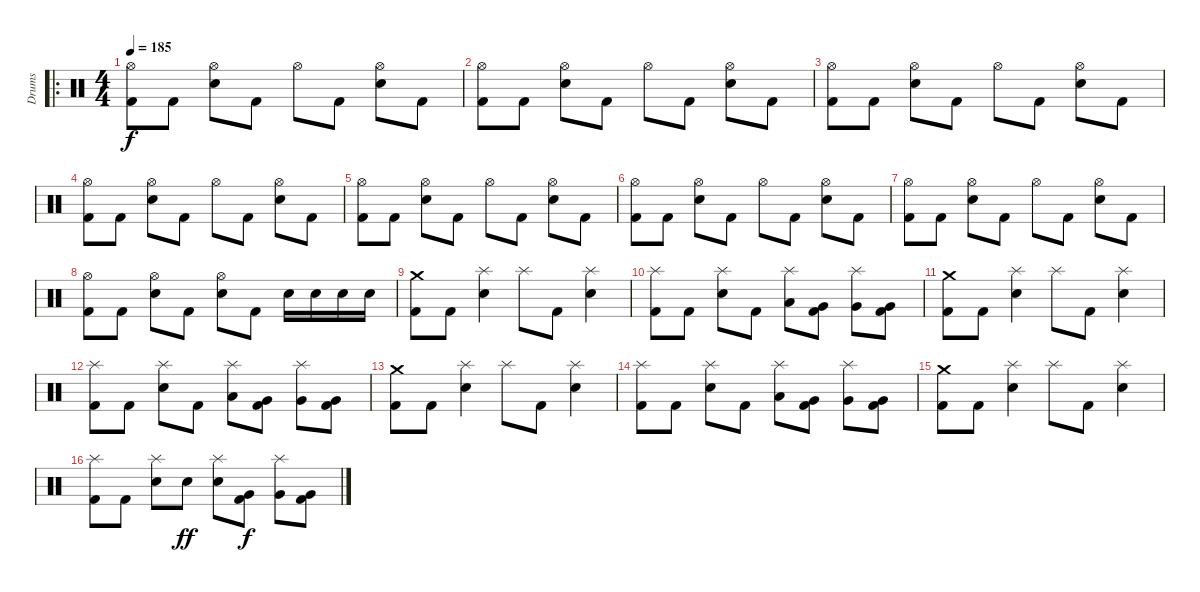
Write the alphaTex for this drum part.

\track ("Drums" "Drums") {instrument percussion}
\staff {score}
\articulation defaults
\ro
\ts (4 4)
\tempo 185
\clef neutral
\ks c
("Hi-Hat (open)" "Kick (hit) 2").8{dy f} "Kick (hit) 2".8 ("Hi-Hat (open)" "Snare (hit) 2").8 "Kick (hit) 2".8 "Hi-Hat (open)".8 "Kick (hit) 2".8 ("Hi-Hat (open)" "Snare (hit) 2").8 "Kick (hit) 2".8 |
("Hi-Hat (open)" "Kick (hit) 2").8 "Kick (hit) 2".8 ("Hi-Hat (open)" "Snare (hit) 2").8 "Kick (hit) 2".8 "Hi-Hat (open)".8 "Kick (hit) 2".8 ("Hi-Hat (open)" "Snare (hit) 2").8 "Kick (hit) 2".8 |
("Hi-Hat (open)" "Kick (hit) 2").8 "Kick (hit) 2".8 ("Hi-Hat (open)" "Snare (hit) 2").8 "Kick (hit) 2".8 "Hi-Hat (open)".8 "Kick (hit) 2".8 ("Hi-Hat (open)" "Snare (hit) 2").8 "Kick (hit) 2".8 |
("Hi-Hat (open)" "Kick (hit) 2").8 "Kick (hit) 2".8 ("Hi-Hat (open)" "Snare (hit) 2").8 "Kick (hit) 2".8 "Hi-Hat (open)".8 "Kick (hit) 2".8 ("Hi-Hat (open)" "Snare (hit) 2").8 "Kick (hit) 2".8 |
("Hi-Hat (open)" "Kick (hit) 2").8 "Kick (hit) 2".8 ("Hi-Hat (open)" "Snare (hit) 2").8 "Kick (hit) 2".8 "Hi-Hat (open)".8 "Kick (hit) 2".8 ("Hi-Hat (open)" "Snare (hit) 2").8 "Kick (hit) 2".8 |
("Hi-Hat (open)" "Kick (hit) 2").8 "Kick (hit) 2".8 ("Hi-Hat (open)" "Snare (hit) 2").8 "Kick (hit) 2".8 "Hi-Hat (open)".8 "Kick (hit) 2".8 ("Hi-Hat (open)" "Snare (hit) 2").8 "Kick (hit) 2".8 |
("Hi-Hat (open)" "Kick (hit) 2").8 "Kick (hit) 2".8 ("Hi-Hat (open)" "Snare (hit) 2").8 "Kick (hit) 2".8 "Hi-Hat (open)".8 "Kick (hit) 2".8 ("Hi-Hat (open)" "Snare (hit) 2").8 "Kick (hit) 2".8 |
("Hi-Hat (open)" "Kick (hit) 2").8 "Kick (hit) 2".8 ("Hi-Hat (open)" "Snare (hit) 2").8 "Kick (hit) 2".8 ("Hi-Hat (open)" "Snare (hit) 2").8 "Kick (hit) 2".8 "Snare (hit) 2".16 "Snare (hit) 2".16 "Snare (hit) 2".16 "Snare (hit) 2".16 |
("Crash medium (hit)" "Kick (hit) 2").8 "Kick (hit) 2".8 ("Splash (hit)" "Snare (hit) 2").4 "Splash (hit)".8 "Kick (hit) 2".8 ("Splash (hit)" "Snare (hit) 2").4 |
("Splash (hit)" "Kick (hit) 2").8 "Kick (hit) 2".8 ("Splash (hit)" "Snare (hit) 2").8 "Kick (hit) 2".8 ("Splash (hit)" "Low Tom (hit)").8 ("Very Low Tom (hit)" "Kick (hit) 2").8 ("Splash (hit)" "Very Low Tom (hit)").8 ("Very Low Tom (hit)" "Kick (hit) 2").8 |
("Crash medium (hit)" "Kick (hit) 2").8 "Kick (hit) 2".8 ("Splash (hit)" "Snare (hit) 2").4 "Splash (hit)".8 "Kick (hit) 2".8 ("Splash (hit)" "Snare (hit) 2").4 |
("Splash (hit)" "Kick (hit) 2").8 "Kick (hit) 2".8 ("Splash (hit)" "Snare (hit) 2").8 "Kick (hit) 2".8 ("Splash (hit)" "Low Tom (hit)").8 ("Very Low Tom (hit)" "Kick (hit) 2").8 ("Splash (hit)" "Very Low Tom (hit)").8 ("Very Low Tom (hit)" "Kick (hit) 2").8 |
("Crash medium (hit)" "Kick (hit) 2").8 "Kick (hit) 2".8 ("Splash (hit)" "Snare (hit) 2").4 "Splash (hit)".8 "Kick (hit) 2".8 ("Splash (hit)" "Snare (hit) 2").4 |
("Splash (hit)" "Kick (hit) 2").8 "Kick (hit) 2".8 ("Splash (hit)" "Snare (hit) 2").8 "Kick (hit) 2".8 ("Splash (hit)" "Low Tom (hit)").8 ("Very Low Tom (hit)" "Kick (hit) 2").8 ("Splash (hit)" "Very Low Tom (hit)").8 ("Very Low Tom (hit)" "Kick (hit) 2").8 |
("Crash medium (hit)" "Kick (hit) 2").8 "Kick (hit) 2".8 ("Splash (hit)" "Snare (hit) 2").4 "Splash (hit)".8 "Kick (hit) 2".8 ("Splash (hit)" "Snare (hit) 2").4 |
("Splash (hit)" "Kick (hit) 2").8 "Kick (hit) 2".8 ("Splash (hit)" "Snare (hit) 2").8 "Snare (hit) 2".8{dy ff} ("Splash (hit)" "Snare (hit) 2").8 ("Very Low Tom (hit)" "Kick (hit) 2").8{dy f} ("Splash (hit)" "Very Low Tom (hit)").8 ("Very Low Tom (hit)" "Kick (hit) 2").8
